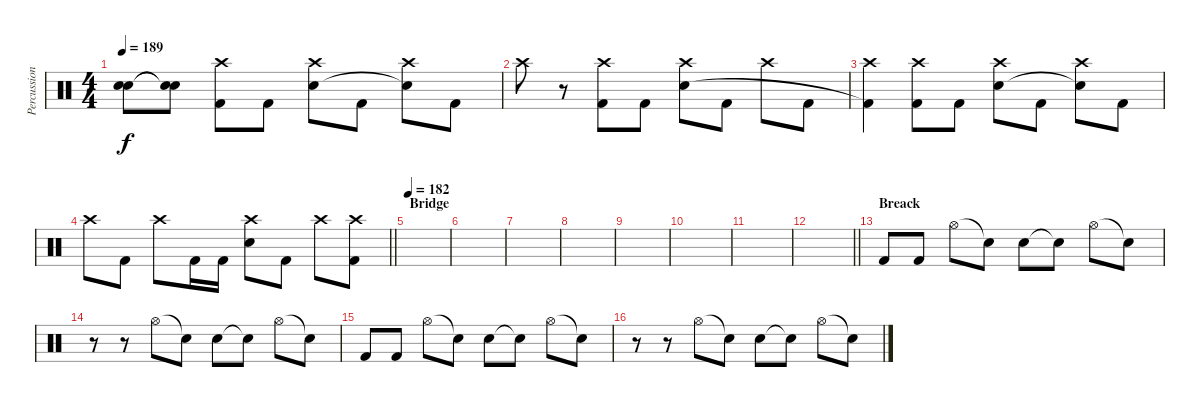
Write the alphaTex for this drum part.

\track ("Percussion" "Percussion") {instrument percussion}
\staff {score}
\articulation defaults
\ts (4 4)
\tempo 189
\clef neutral
\ks c
("Snare (hit)"{t} "Snare (hit)"{t}).8{dy f} ("Snare (hit)"{t} "Snare (hit)"{t}).8 ("Crash high (hit)" "Kick (hit) 2").8 "Kick (hit) 2".8 ("Crash high (hit)" "Electric Snare (hit)").8 "Kick (hit) 2".8 ("Crash high (hit)" "Snare (hit)"{t}).8 "Kick (hit) 2".8 |
"Crash high (hit)".8 r.8 ("Crash high (hit)" "Kick (hit) 2").8 "Kick (hit) 2".8 ("Crash high (hit)" "Electric Snare (hit)").8 "Kick (hit) 2".8 "Crash high (hit)".8 "Kick (hit) 2".8 |
("Crash high (hit)" "Kick (hit) 2"{t}).4 ("Crash high (hit)" "Kick (hit) 2").8 "Kick (hit) 2".8 ("Crash high (hit)" "Electric Snare (hit)").8 "Kick (hit) 2".8 ("Crash high (hit)" "Snare (hit)"{t}).8 "Kick (hit) 2".8 |
\barLineRight lightlight "Crash high (hit)".8 "Kick (hit) 2".8 "Crash high (hit)".8 "Kick (hit) 2".16 "Kick (hit) 2".16
("Crash high (hit)" "Electric Snare (hit)").8 "Kick (hit) 2".8 "Crash high (hit)".8 ("Crash high (hit)" "Kick (hit) 2").8 |
\section ("" "Bridge")
\tempo 182
|
|
|
|
|
|
|
\barLineRight lightlight
|
\section ("" "Breack")
"Kick (hit) 2".8 "Kick (hit) 2".8 "Hi-Hat (open)".8 "Snare (hit)"{t}.8 "Electric Snare (hit)".8 "Snare (hit)"{t}.8 "Hi-Hat (open)".8 "Snare (hit)"{t}.8 |
r.8 r.8 "Hi-Hat (open)".8 "Snare (hit)"{t}.8 "Electric Snare (hit)".8 "Snare (hit)"{t}.8 "Hi-Hat (open)".8 "Snare (hit)"{t}.8 |
"Kick (hit) 2".8 "Kick (hit) 2".8 "Hi-Hat (open)".8 "Snare (hit)"{t}.8 "Electric Snare (hit)".8 "Snare (hit)"{t}.8 "Hi-Hat (open)".8 "Snare (hit)"{t}.8 |
r.8 r.8 "Hi-Hat (open)".8 "Snare (hit)"{t}.8 "Electric Snare (hit)".8 "Snare (hit)"{t}.8 "Hi-Hat (open)".8 "Snare (hit)"{t}.8
